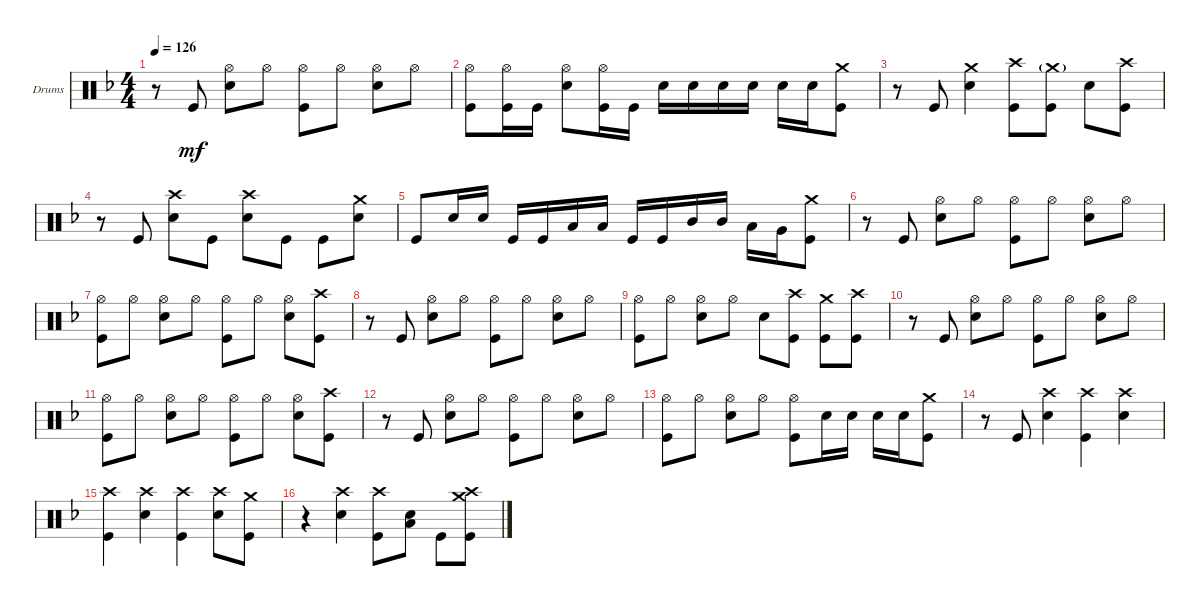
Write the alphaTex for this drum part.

\defaultSystemsLayout 4
\bracketExtendMode groupsimilarinstruments
\firstSystemTrackNameOrientation horizontal
\otherSystemsTrackNameOrientation horizontal
\track ("Drumkit" "Drums") {instrument percussion}
\staff {score}
\articulation defaults
\ts (4 4)
\tempo 126
\clef neutral
\ks f
r.8{dy mf} "Kick (hit)".8 ("Snare (hit) 2" "Hi-Hat (open)").8 "Hi-Hat (open)".8 ("Hi-Hat (open)" "Kick (hit)").8 "Hi-Hat (open)".8 ("Snare (hit) 2" "Hi-Hat (open)").8 "Hi-Hat (open)".8 |
("Kick (hit)" "Hi-Hat (open)").8 ("Kick (hit)" "Hi-Hat (open)").16 "Kick (hit)".16 ("Snare (hit) 2" "Hi-Hat (open)").8 ("Hi-Hat (open)" "Kick (hit)").16 "Kick (hit)".16 "Snare (hit) 2".16 "Snare (hit) 2".16 "Snare (hit) 2".16 "Snare (hit) 2".16 "Snare (hit) 2".16 "Snare (hit) 2".16 ("Kick (hit)" "Crash medium (hit)").8 |
r.8 "Kick (hit)".8 ("Snare (hit) 2" "Crash medium (hit)").4 ("Crash high (hit)" "Kick (hit)").8 ("Kick (hit)" "Crash medium (hit)"{g}).8 "Snare (hit) 2".8 ("Crash high (hit)" "Kick (hit)").8 |
r.8 "Kick (hit)".8 ("Snare (hit) 2" "Crash high (hit)").8 "Kick (hit)".8 ("Snare (hit) 2" "Crash high (hit)").8 "Kick (hit)".8 "Kick (hit)".8 ("Snare (hit) 2" "Crash medium (hit)").8 |
"Kick (hit)".8 "Snare (hit) 2".16 "Snare (hit) 2".16 "Kick (hit)".16 "Kick (hit)".16 "Low Tom (hit)".16 "Low Tom (hit)".16 "Kick (hit)".16 "Kick (hit)".16 "Mid Tom (hit)".16 "Mid Tom (hit)".16 "Low Tom (hit)".16 "Very Low Tom (hit)".16 ("Kick (hit)" "Crash medium (hit)").8 |
r.8 "Kick (hit)".8 ("Hi-Hat (open)" "Snare (hit) 2").8 "Hi-Hat (open)".8 ("Hi-Hat (open)" "Kick (hit)").8 "Hi-Hat (open)".8 ("Hi-Hat (open)" "Snare (hit) 2").8 "Hi-Hat (open)".8 |
("Hi-Hat (open)" "Kick (hit)").8 "Hi-Hat (open)".8 ("Hi-Hat (open)" "Snare (hit) 2").8 "Hi-Hat (open)".8 ("Hi-Hat (open)" "Kick (hit)").8 "Hi-Hat (open)".8 ("Hi-Hat (open)" "Snare (hit) 2").8 ("Kick (hit)" "Crash high (hit)").8 |
r.8 "Kick (hit)".8 ("Hi-Hat (open)" "Snare (hit) 2").8 "Hi-Hat (open)".8 ("Hi-Hat (open)" "Kick (hit)").8 "Hi-Hat (open)".8 ("Hi-Hat (open)" "Snare (hit) 2").8 "Hi-Hat (open)".8 |
("Hi-Hat (open)" "Kick (hit)").8 "Hi-Hat (open)".8 ("Hi-Hat (open)" "Snare (hit) 2").8 "Hi-Hat (open)".8 "Snare (hit) 2".8 ("Kick (hit)" "Crash high (hit)").8 ("Kick (hit)" "Crash medium (hit)").8 ("Kick (hit)" "Crash high (hit)").8 |
r.8 "Kick (hit)".8 ("Hi-Hat (open)" "Snare (hit) 2").8 "Hi-Hat (open)".8 ("Hi-Hat (open)" "Kick (hit)").8 "Hi-Hat (open)".8 ("Hi-Hat (open)" "Snare (hit) 2").8 "Hi-Hat (open)".8 |
("Hi-Hat (open)" "Kick (hit)").8 "Hi-Hat (open)".8 ("Hi-Hat (open)" "Snare (hit) 2").8 "Hi-Hat (open)".8 ("Hi-Hat (open)" "Kick (hit)").8 "Hi-Hat (open)".8 ("Hi-Hat (open)" "Snare (hit) 2").8 ("Kick (hit)" "Crash high (hit)").8 |
r.8 "Kick (hit)".8 ("Hi-Hat (open)" "Snare (hit) 2").8 "Hi-Hat (open)".8 ("Hi-Hat (open)" "Kick (hit)").8 "Hi-Hat (open)".8 ("Hi-Hat (open)" "Snare (hit) 2").8 "Hi-Hat (open)".8 |
("Hi-Hat (open)" "Kick (hit)").8 "Hi-Hat (open)".8 ("Hi-Hat (open)" "Snare (hit) 2").8 "Hi-Hat (open)".8 ("Hi-Hat (open)" "Kick (hit)").8 "Snare (hit) 2".16 "Snare (hit) 2".16 "Snare (hit) 2".16 "Snare (hit) 2".16 ("Kick (hit)" "Crash medium (hit)").8 |
r.8 "Kick (hit)".8 ("Snare (hit) 2" "Crash high (hit)").4 ("Crash high (hit)" "Kick (hit)").4 ("Snare (hit) 2" "Crash high (hit)").4 |
("Crash high (hit)" "Kick (hit)").4 ("Snare (hit) 2" "Crash high (hit)").4 ("Crash high (hit)" "Kick (hit)").4 ("Snare (hit) 2" "Crash high (hit)").8 ("Kick (hit)" "Crash medium (hit)").8 |
r.4 ("Snare (hit) 2" "Crash high (hit)").4 ("Crash high (hit)" "Kick (hit)").8 ("Low Tom (hit)" "Snare (hit) 2").8 "Kick (hit)".8 ("Crash medium (hit)" "Crash high (hit)" "Kick (hit)").8
